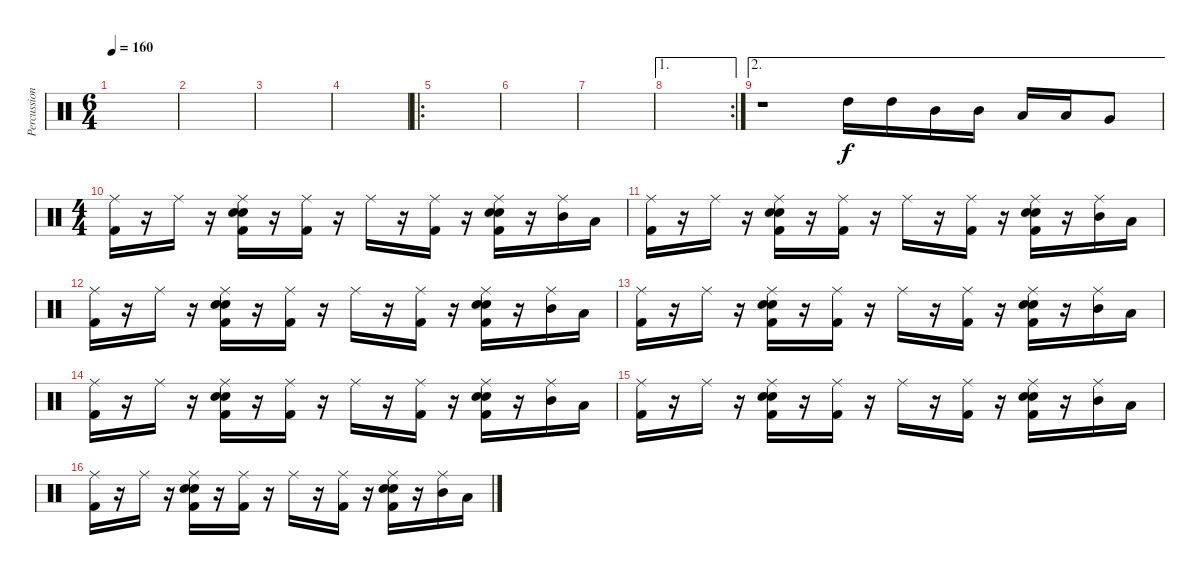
\track ("Percussion" "Percussion") {instrument percussion}
\staff {score}
\articulation defaults
\ts (6 4)
\tempo 160
\clef neutral
\ks c
|
|
|
|
\ro
|
|
|
\ae 1
\rc 2
|
\ae 2
r.1 "High Tom (hit)".16 "High Tom (hit)".16 "Mid Tom (hit)".16 "Mid Tom (hit)".16 "Low Tom (hit)".16 "Low Tom (hit)".16 "Very Low Tom (hit)".8 |
\ts (4 4)
("Ride (middle)" "Kick (hit) 2").16 r.16 "Ride (middle)".16 r.16 ("Ride (middle)" "Kick (hit) 2" "Snare (hit) 2" "Electric Snare (hit)").16 r.16 ("Ride (middle)" "Kick (hit) 2").16 r.16 "Ride (middle)".16 r.16 ("Ride (middle)" "Kick (hit) 2").16 r.16 ("Ride (middle)" "Kick (hit) 2" "Snare (hit) 2" "Electric Snare (hit)").16 r.16 ("Ride (middle)" "Mid Tom (hit)").16 "Low Tom (hit)".16 |
("Ride (middle)" "Kick (hit) 2").16 r.16 "Ride (middle)".16 r.16 ("Ride (middle)" "Kick (hit) 2" "Snare (hit) 2" "Electric Snare (hit)").16 r.16 ("Ride (middle)" "Kick (hit) 2").16 r.16 "Ride (middle)".16 r.16 ("Ride (middle)" "Kick (hit) 2").16 r.16 ("Ride (middle)" "Kick (hit) 2" "Snare (hit) 2" "Electric Snare (hit)").16 r.16 ("Ride (middle)" "Mid Tom (hit)").16 "Low Tom (hit)".16 |
("Ride (middle)" "Kick (hit) 2").16 r.16 "Ride (middle)".16 r.16 ("Ride (middle)" "Kick (hit) 2" "Snare (hit) 2" "Electric Snare (hit)").16 r.16 ("Ride (middle)" "Kick (hit) 2").16 r.16 "Ride (middle)".16 r.16 ("Ride (middle)" "Kick (hit) 2").16 r.16 ("Ride (middle)" "Kick (hit) 2" "Snare (hit) 2" "Electric Snare (hit)").16 r.16 ("Ride (middle)" "Mid Tom (hit)").16 "Low Tom (hit)".16 |
("Ride (middle)" "Kick (hit) 2").16 r.16 "Ride (middle)".16 r.16 ("Ride (middle)" "Kick (hit) 2" "Snare (hit) 2" "Electric Snare (hit)").16 r.16 ("Ride (middle)" "Kick (hit) 2").16 r.16 "Ride (middle)".16 r.16 ("Ride (middle)" "Kick (hit) 2").16 r.16 ("Ride (middle)" "Kick (hit) 2" "Snare (hit) 2" "Electric Snare (hit)").16 r.16 ("Ride (middle)" "Mid Tom (hit)").16 "Low Tom (hit)".16 |
("Ride (middle)" "Kick (hit) 2").16 r.16 "Ride (middle)".16 r.16 ("Ride (middle)" "Kick (hit) 2" "Snare (hit) 2" "Electric Snare (hit)").16 r.16 ("Ride (middle)" "Kick (hit) 2").16 r.16 "Ride (middle)".16 r.16 ("Ride (middle)" "Kick (hit) 2").16 r.16 ("Ride (middle)" "Kick (hit) 2" "Snare (hit) 2" "Electric Snare (hit)").16 r.16 ("Ride (middle)" "Mid Tom (hit)").16 "Low Tom (hit)".16 |
("Ride (middle)" "Kick (hit) 2").16 r.16 "Ride (middle)".16 r.16 ("Ride (middle)" "Kick (hit) 2" "Snare (hit) 2" "Electric Snare (hit)").16 r.16 ("Ride (middle)" "Kick (hit) 2").16 r.16 "Ride (middle)".16 r.16 ("Ride (middle)" "Kick (hit) 2").16 r.16 ("Ride (middle)" "Kick (hit) 2" "Snare (hit) 2" "Electric Snare (hit)").16 r.16 ("Ride (middle)" "Mid Tom (hit)").16 "Low Tom (hit)".16 |
("Ride (middle)" "Kick (hit) 2").16 r.16 "Ride (middle)".16 r.16 ("Ride (middle)" "Kick (hit) 2" "Snare (hit) 2" "Electric Snare (hit)").16 r.16 ("Ride (middle)" "Kick (hit) 2").16 r.16 "Ride (middle)".16 r.16 ("Ride (middle)" "Kick (hit) 2").16 r.16 ("Ride (middle)" "Kick (hit) 2" "Snare (hit) 2" "Electric Snare (hit)").16 r.16 ("Ride (middle)" "Mid Tom (hit)").16 "Low Tom (hit)".16
